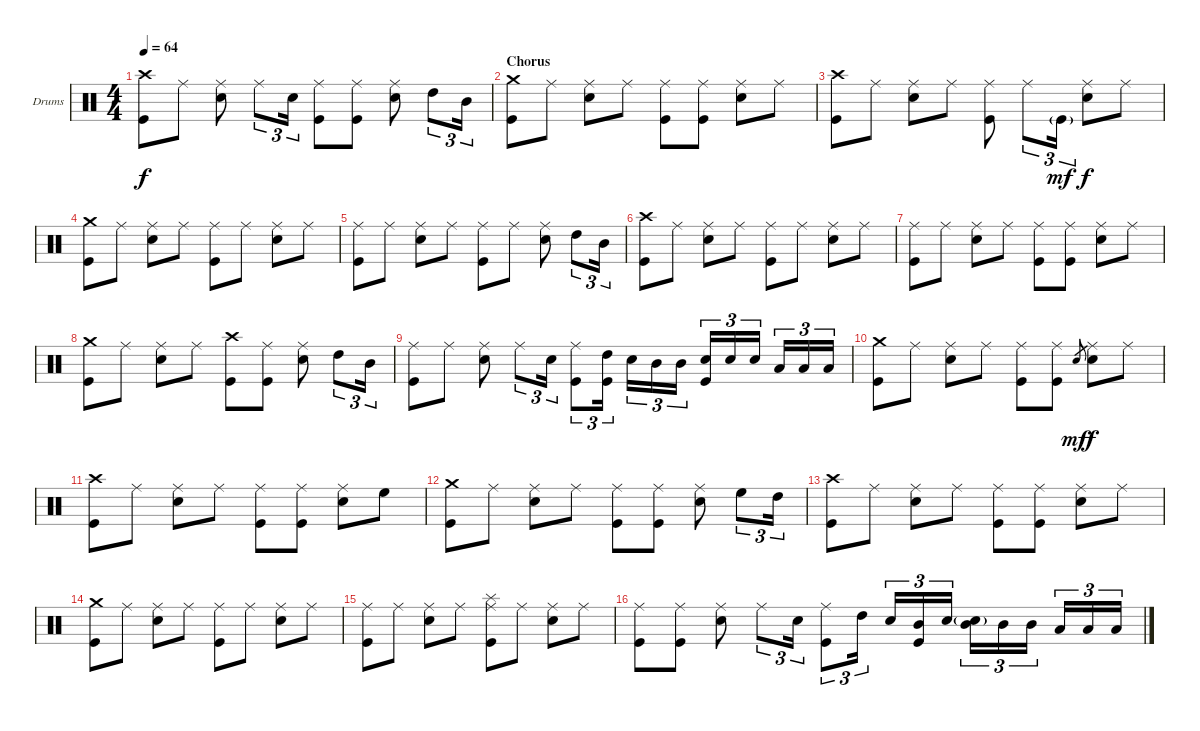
\bracketExtendMode groupsimilarinstruments
\firstSystemTrackNameOrientation horizontal
\otherSystemsTrackNameOrientation horizontal
\track ("Drumkit" "Drums") {instrument percussion}
\staff {score}
\articulation defaults
\ts (4 4)
\tempo 64
\clef neutral
\ks c
("Crash high (hit)" "Kick (hit)").8{dy f} "Ride (middle)".8 ("Ride (middle)" "Snare (hit) 2").8 "Ride (middle)".8{tu (3 2)} "Snare (hit) 2".16{tu (3 2)} ("Ride (middle)" "Kick (hit)").8 ("Ride (middle)" "Kick (hit)").8 ("Ride (middle)" "Snare (hit) 2").8 "High Tom (hit)".8{tu (3 2)} "Mid Tom (hit)".16{tu (3 2)} |
\section ("" "Chorus")
("Crash medium (hit)" "Kick (hit)").8 "Ride (middle)".8 ("Ride (middle)" "Snare (hit) 2").8 "Ride (middle)".8 ("Ride (middle)" "Kick (hit)").8 ("Ride (middle)" "Kick (hit)").8 ("Ride (middle)" "Snare (hit) 2").8 "Ride (middle)".8 |
("Crash high (hit)" "Kick (hit)").8 "Ride (middle)".8 ("Ride (middle)" "Snare (hit) 2").8 "Ride (middle)".8 ("Ride (middle)" "Kick (hit)").8 "Ride (middle)".8{tu (3 2)} "Kick (hit)"{g}.16{tu (3 2) dy mf} ("Ride (middle)" "Snare (hit) 2").8{dy f} "Ride (middle)".8 |
("Crash medium (hit)" "Kick (hit)").8 "Ride (middle)".8 ("Ride (middle)" "Snare (hit) 2").8 "Ride (middle)".8 ("Ride (middle)" "Kick (hit)").8 "Ride (middle)".8 ("Ride (middle)" "Snare (hit) 2").8 "Ride (middle)".8 |
("Ride (middle)" "Kick (hit)").8 "Ride (middle)".8 ("Ride (middle)" "Snare (hit) 2").8 "Ride (middle)".8 ("Ride (middle)" "Kick (hit)").8 "Ride (middle)".8 ("Ride (middle)" "Snare (hit) 2").8 "High Tom (hit)".8{tu (3 2)} "Mid Tom (hit)".16{tu (3 2)} |
("Crash high (hit)" "Kick (hit)").8 "Ride (middle)".8 ("Ride (middle)" "Snare (hit) 2").8 "Ride (middle)".8 ("Ride (middle)" "Kick (hit)").8 "Ride (middle)".8 ("Ride (middle)" "Snare (hit) 2").8 "Ride (middle)".8 |
("Ride (middle)" "Kick (hit)").8 "Ride (middle)".8 ("Ride (middle)" "Snare (hit) 2").8 "Ride (middle)".8 ("Ride (middle)" "Kick (hit)").8 ("Ride (middle)" "Kick (hit)").8 ("Ride (middle)" "Snare (hit) 2").8 "Ride (middle)".8 |
("Crash medium (hit)" "Kick (hit)").8 "Ride (middle)".8 ("Ride (middle)" "Snare (hit) 2").8 "Ride (middle)".8 ("Crash high (hit)" "Kick (hit)").8 ("Ride (middle)" "Kick (hit)").8 ("Ride (middle)" "Snare (hit) 2").8 "High Tom (hit)".8{tu (3 2)} "Mid Tom (hit)".16{tu (3 2)} |
("Ride (middle)" "Kick (hit)").8 "Ride (middle)".8 ("Ride (middle)" "Snare (hit) 2").8 "Ride (middle)".8{tu (3 2)} "Snare (hit) 2".16{tu (3 2)} ("Ride (middle)" "Kick (hit)").8{tu (3 2)} ("High Tom (hit)" "Kick (hit)").16{tu (3 2)} "Snare (hit) 2".16{tu (3 2)} "Mid Tom (hit)".16{tu (3 2)} "Mid Tom (hit)".16{tu (3 2)} ("Snare (hit) 2" "Kick (hit)").16{tu (3 2)} "Snare (hit) 2".16{tu (3 2)} "Snare (hit) 2".16{tu (3 2)} "Low Tom (hit)".16{tu (3 2)} "Low Tom (hit)".16{tu (3 2)} "Low Tom (hit)".16{tu (3 2)} |
("Crash medium (hit)" "Kick (hit)").8 "Ride (middle)".8 ("Ride (middle)" "Snare (hit) 2").8 "Ride (middle)".8 ("Ride (middle)" "Kick (hit)").8 ("Ride (middle)" "Kick (hit)").8 "Snare (hit) 2".8{gr dy mf} ("Ride (middle)" "Snare (hit) 2").8{dy f} "Ride (middle)".8 |
("Crash high (hit)" "Kick (hit)").8 "Ride (middle)".8 ("Ride (middle)" "Snare (hit) 2").8 "Ride (middle)".8 ("Ride (middle)" "Kick (hit)").8 ("Ride (middle)" "Kick (hit)").8 ("Ride (middle)" "Snare (hit) 2").8 "High Floor Tom (hit)".8 |
("Crash medium (hit)" "Kick (hit)").8 "Ride (middle)".8 ("Ride (middle)" "Snare (hit) 2").8 "Ride (middle)".8 ("Ride (middle)" "Kick (hit)").8 ("Ride (middle)" "Kick (hit)").8 ("Ride (middle)" "Snare (hit) 2").8 "High Floor Tom (hit)".8{tu (3 2)} "High Tom (hit)".16{tu (3 2)} |
("Crash high (hit)" "Kick (hit)").8 "Ride (middle)".8 ("Ride (middle)" "Snare (hit) 2").8 "Ride (middle)".8 ("Ride (middle)" "Kick (hit)").8 ("Ride (middle)" "Kick (hit)").8 ("Ride (middle)" "Snare (hit) 2").8 "Ride (middle)".8 |
("Crash medium (hit)" "Kick (hit)").8 "Ride (middle)".8 ("Ride (middle)" "Snare (hit) 2").8 "Ride (middle)".8 ("Ride (middle)" "Kick (hit)").8 "Ride (middle)".8 ("Ride (middle)" "Snare (hit) 2").8 "Ride (middle)".8 |
("Ride (middle)" "Kick (hit)").8 "Ride (middle)".8 ("Ride (middle)" "Snare (hit) 2").8 "Ride (middle)".8 ("Splash (hit)" "Ride (middle)" "Kick (hit)").8 "Ride (middle)".8 ("Ride (middle)" "Snare (hit) 2").8 "Ride (middle)".8 |
("Ride (middle)" "Kick (hit)").8 ("Ride (middle)" "Kick (hit)").8 ("Ride (middle)" "Snare (hit) 2").8 "Ride (middle)".8{tu (3 2)} "Snare (hit) 2".16{tu (3 2)} ("Ride (middle)" "Kick (hit)").8{tu (3 2)} "High Tom (hit)".16{tu (3 2)} "Snare (hit) 2".16{tu (3 2)} ("Mid Tom (hit)" "Kick (hit)").16{tu (3 2)} "Snare (hit) 2".16{tu (3 2)} ("Snare (hit) 2"{g} "Mid Tom (hit)").16{tu (3 2)} "Mid Tom (hit)".16{tu (3 2)} "Mid Tom (hit)".16{tu (3 2)} "Low Tom (hit)".16{tu (3 2)} "Low Tom (hit)".16{tu (3 2)} "Low Tom (hit)".16{tu (3 2)}
